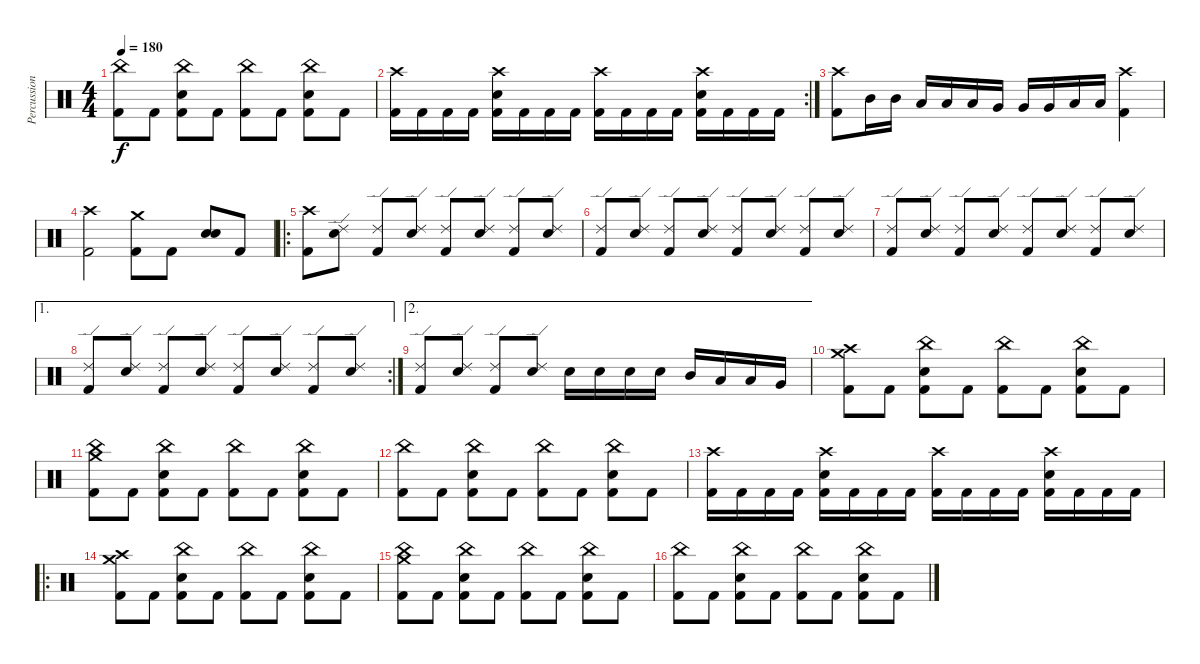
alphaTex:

\track ("Percussions" "Percussion") {instrument percussion}
\staff {score}
\articulation defaults
\ts (4 4)
\tempo 180
\clef neutral
\ks c
("China (hit)" "Kick (hit) 2").8{dy f} "Kick (hit) 2".8 ("China (hit)" "Snare (hit) 2" "Kick (hit) 2").8 "Kick (hit) 2".8 ("China (hit)" "Kick (hit) 2").8 "Kick (hit) 2".8 ("China (hit)" "Snare (hit) 2" "Kick (hit) 2").8 "Kick (hit) 2".8 |
\rc 2
("Crash high (hit)" "Kick (hit) 2").16 "Kick (hit) 2".16 "Kick (hit) 2".16 "Kick (hit) 2".16 ("Crash high (hit)" "Snare (hit) 2" "Kick (hit) 2").16 "Kick (hit) 2".16 "Kick (hit) 2".16 "Kick (hit) 2".16 ("Crash high (hit)" "Kick (hit) 2").16 "Kick (hit) 2".16 "Kick (hit) 2".16 "Kick (hit) 2".16 ("Crash high (hit)" "Snare (hit) 2" "Kick (hit) 2").16 "Kick (hit) 2".16 "Kick (hit) 2".16 "Kick (hit) 2".16 |
("Crash high (hit)" "Kick (hit) 2").8 "Mid Tom (hit)".16 "Mid Tom (hit)".16 "Low Tom (hit)".16 "Low Tom (hit)".16 "Low Tom (hit)".16 "Very Low Tom (hit)".16 "Very Low Tom (hit)".16 "Very Low Tom (hit)".16 "Low Floor Tom (hit)".16 "Low Floor Tom (hit)".16 ("Crash high (hit)" "Kick (hit) 2").4 |
("Crash high (hit)" "Kick (hit) 2").2 ("Crash medium (hit)" "Kick (hit) 2").8 "Kick (hit) 2".8 ("Snare (hit) 2" "Snare (hit) 2").8{bd 120} "Kick (hit) 2".8 |
\ro
("Crash high (hit)" "Kick (hit) 2").8 ("Ride (edge) 2" "Snare (hit) 2").8 ("Ride (edge) 2" "Kick (hit) 2").8 ("Ride (edge) 2" "Snare (hit) 2").8 ("Ride (edge) 2" "Kick (hit) 2").8 ("Ride (edge) 2" "Snare (hit) 2").8 ("Ride (edge) 2" "Kick (hit) 2").8 ("Ride (edge) 2" "Snare (hit) 2").8 |
("Ride (edge) 2" "Kick (hit) 2").8 ("Ride (edge) 2" "Snare (hit) 2").8 ("Ride (edge) 2" "Kick (hit) 2").8 ("Ride (edge) 2" "Snare (hit) 2").8 ("Ride (edge) 2" "Kick (hit) 2").8 ("Ride (edge) 2" "Snare (hit) 2").8 ("Ride (edge) 2" "Kick (hit) 2").8 ("Ride (edge) 2" "Snare (hit) 2").8 |
("Ride (edge) 2" "Kick (hit) 2").8 ("Ride (edge) 2" "Snare (hit) 2").8 ("Ride (edge) 2" "Kick (hit) 2").8 ("Ride (edge) 2" "Snare (hit) 2").8 ("Ride (edge) 2" "Kick (hit) 2").8 ("Ride (edge) 2" "Snare (hit) 2").8 ("Ride (edge) 2" "Kick (hit) 2").8 ("Ride (edge) 2" "Snare (hit) 2").8 |
\ae 1
\rc 2
("Ride (edge) 2" "Kick (hit) 2").8 ("Ride (edge) 2" "Snare (hit) 2").8 ("Ride (edge) 2" "Kick (hit) 2").8 ("Ride (edge) 2" "Snare (hit) 2").8 ("Ride (edge) 2" "Kick (hit) 2").8 ("Ride (edge) 2" "Snare (hit) 2").8 ("Ride (edge) 2" "Kick (hit) 2").8 ("Ride (edge) 2" "Snare (hit) 2").8 |
\ae 2
("Ride (edge) 2" "Kick (hit) 2").8 ("Ride (edge) 2" "Snare (hit) 2").8 ("Ride (edge) 2" "Kick (hit) 2").8 ("Ride (edge) 2" "Snare (hit) 2").8 "Snare (hit) 2".16 "Snare (hit) 2".16 "Snare (hit) 2".16 "Snare (hit) 2".16 "Mid Tom (hit)".16 "Low Tom (hit)".16 "Low Tom (hit)".16 "Very Low Tom (hit)".16 |
("Crash medium (hit)" "Crash high (hit)" "Kick (hit) 2").8 "Kick (hit) 2".8 ("China (hit)" "Snare (hit) 2" "Kick (hit) 2").8 "Kick (hit) 2".8 ("China (hit)" "Kick (hit) 2").8 "Kick (hit) 2".8 ("China (hit)" "Snare (hit) 2" "Kick (hit) 2").8 "Kick (hit) 2".8 |
("Crash medium (hit)" "China (hit)" "Kick (hit) 2").8 "Kick (hit) 2".8 ("China (hit)" "Snare (hit) 2" "Kick (hit) 2").8 "Kick (hit) 2".8 ("China (hit)" "Kick (hit) 2").8 "Kick (hit) 2".8 ("China (hit)" "Snare (hit) 2" "Kick (hit) 2").8 "Kick (hit) 2".8 |
("China (hit)" "Kick (hit) 2").8 "Kick (hit) 2".8 ("China (hit)" "Snare (hit) 2" "Kick (hit) 2").8 "Kick (hit) 2".8 ("China (hit)" "Kick (hit) 2").8 "Kick (hit) 2".8 ("China (hit)" "Snare (hit) 2" "Kick (hit) 2").8 "Kick (hit) 2".8 |
("Crash high (hit)" "Kick (hit) 2").16 "Kick (hit) 2".16 "Kick (hit) 2".16 "Kick (hit) 2".16 ("Crash high (hit)" "Snare (hit) 2" "Kick (hit) 2").16 "Kick (hit) 2".16 "Kick (hit) 2".16 "Kick (hit) 2".16 ("Crash high (hit)" "Kick (hit) 2").16 "Kick (hit) 2".16 "Kick (hit) 2".16 "Kick (hit) 2".16 ("Crash high (hit)" "Snare (hit) 2" "Kick (hit) 2").16 "Kick (hit) 2".16 "Kick (hit) 2".16 "Kick (hit) 2".16 |
\ro
("Crash medium (hit)" "Crash high (hit)" "Kick (hit) 2").8 "Kick (hit) 2".8 ("China (hit)" "Snare (hit) 2" "Kick (hit) 2").8 "Kick (hit) 2".8 ("China (hit)" "Kick (hit) 2").8 "Kick (hit) 2".8 ("China (hit)" "Snare (hit) 2" "Kick (hit) 2").8 "Kick (hit) 2".8 |
("Crash medium (hit)" "China (hit)" "Kick (hit) 2").8 "Kick (hit) 2".8 ("China (hit)" "Snare (hit) 2" "Kick (hit) 2").8 "Kick (hit) 2".8 ("China (hit)" "Kick (hit) 2").8 "Kick (hit) 2".8 ("China (hit)" "Snare (hit) 2" "Kick (hit) 2").8 "Kick (hit) 2".8 |
("China (hit)" "Kick (hit) 2").8 "Kick (hit) 2".8 ("China (hit)" "Snare (hit) 2" "Kick (hit) 2").8 "Kick (hit) 2".8 ("China (hit)" "Kick (hit) 2").8 "Kick (hit) 2".8 ("China (hit)" "Snare (hit) 2" "Kick (hit) 2").8 "Kick (hit) 2".8
